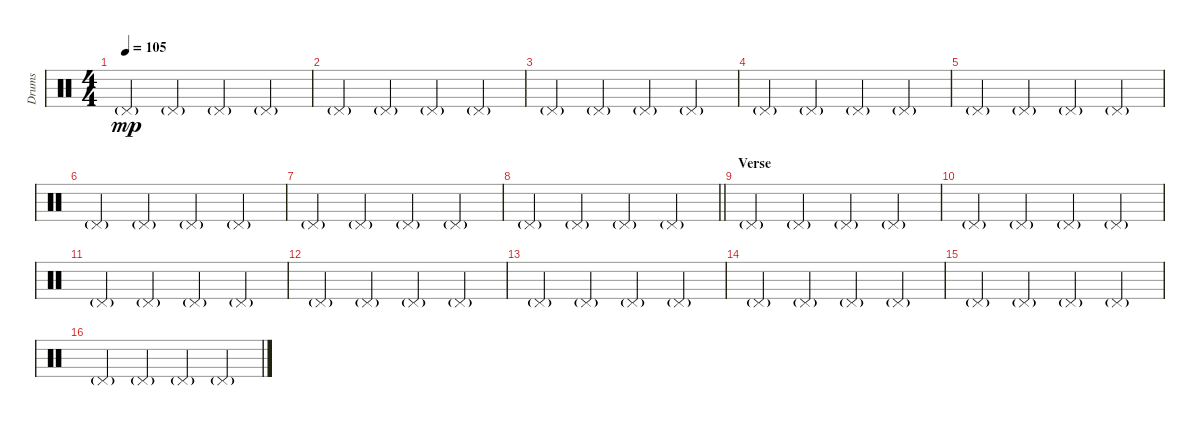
\track ("Drums" "Drums") {instrument percussion}
\staff {score}
\articulation defaults
\ts (4 4)
\tempo 105
\clef neutral
\ks c "Pedal Hi-Hat (hit)"{g}.4{dy mp} "Pedal Hi-Hat (hit)"{g}.4 "Pedal Hi-Hat (hit)"{g}.4 "Pedal Hi-Hat (hit)"{g}.4
|
"Pedal Hi-Hat (hit)"{g}.4 "Pedal Hi-Hat (hit)"{g}.4 "Pedal Hi-Hat (hit)"{g}.4 "Pedal Hi-Hat (hit)"{g}.4 |
"Pedal Hi-Hat (hit)"{g}.4 "Pedal Hi-Hat (hit)"{g}.4 "Pedal Hi-Hat (hit)"{g}.4 "Pedal Hi-Hat (hit)"{g}.4 |
"Pedal Hi-Hat (hit)"{g}.4 "Pedal Hi-Hat (hit)"{g}.4 "Pedal Hi-Hat (hit)"{g}.4 "Pedal Hi-Hat (hit)"{g}.4 |
"Pedal Hi-Hat (hit)"{g}.4 "Pedal Hi-Hat (hit)"{g}.4 "Pedal Hi-Hat (hit)"{g}.4 "Pedal Hi-Hat (hit)"{g}.4 |
"Pedal Hi-Hat (hit)"{g}.4 "Pedal Hi-Hat (hit)"{g}.4 "Pedal Hi-Hat (hit)"{g}.4 "Pedal Hi-Hat (hit)"{g}.4 |
"Pedal Hi-Hat (hit)"{g}.4 "Pedal Hi-Hat (hit)"{g}.4 "Pedal Hi-Hat (hit)"{g}.4 "Pedal Hi-Hat (hit)"{g}.4 |
\barLineRight lightlight "Pedal Hi-Hat (hit)"{g}.4 "Pedal Hi-Hat (hit)"{g}.4 "Pedal Hi-Hat (hit)"{g}.4 "Pedal Hi-Hat (hit)"{g}.4
|
\section ("" "Verse")
"Pedal Hi-Hat (hit)"{g}.4 "Pedal Hi-Hat (hit)"{g}.4 "Pedal Hi-Hat (hit)"{g}.4 "Pedal Hi-Hat (hit)"{g}.4 |
"Pedal Hi-Hat (hit)"{g}.4 "Pedal Hi-Hat (hit)"{g}.4 "Pedal Hi-Hat (hit)"{g}.4 "Pedal Hi-Hat (hit)"{g}.4 |
"Pedal Hi-Hat (hit)"{g}.4 "Pedal Hi-Hat (hit)"{g}.4 "Pedal Hi-Hat (hit)"{g}.4 "Pedal Hi-Hat (hit)"{g}.4 |
"Pedal Hi-Hat (hit)"{g}.4 "Pedal Hi-Hat (hit)"{g}.4 "Pedal Hi-Hat (hit)"{g}.4 "Pedal Hi-Hat (hit)"{g}.4 |
"Pedal Hi-Hat (hit)"{g}.4 "Pedal Hi-Hat (hit)"{g}.4 "Pedal Hi-Hat (hit)"{g}.4 "Pedal Hi-Hat (hit)"{g}.4 |
"Pedal Hi-Hat (hit)"{g}.4 "Pedal Hi-Hat (hit)"{g}.4 "Pedal Hi-Hat (hit)"{g}.4 "Pedal Hi-Hat (hit)"{g}.4 |
"Pedal Hi-Hat (hit)"{g}.4 "Pedal Hi-Hat (hit)"{g}.4 "Pedal Hi-Hat (hit)"{g}.4 "Pedal Hi-Hat (hit)"{g}.4 |
"Pedal Hi-Hat (hit)"{g}.4 "Pedal Hi-Hat (hit)"{g}.4 "Pedal Hi-Hat (hit)"{g}.4 "Pedal Hi-Hat (hit)"{g}.4
